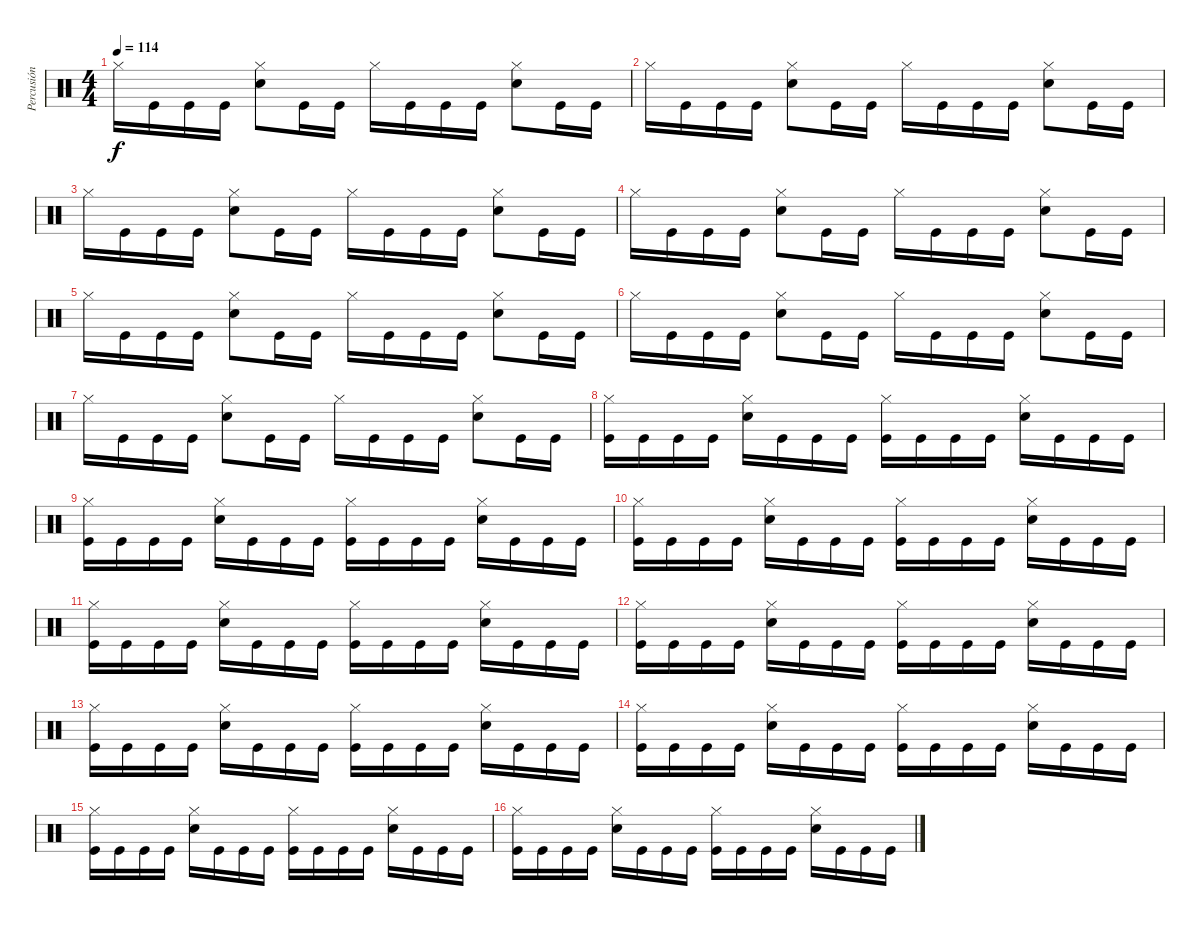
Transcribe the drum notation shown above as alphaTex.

\track ("Percusión" "Percusión") {instrument percussion}
\staff {score}
\articulation defaults
\ts (4 4)
\tempo 114
\clef neutral
\ks c "Hi-Hat (closed)".16{dy f} "Kick (hit)".16 "Kick (hit)".16 "Kick (hit)".16
("Hi-Hat (closed)" "Snare (hit) 2").8 "Kick (hit)".16 "Kick (hit)".16 "Hi-Hat (closed)".16 "Kick (hit)".16 "Kick (hit)".16 "Kick (hit)".16 ("Hi-Hat (closed)" "Snare (hit) 2").8 "Kick (hit)".16 "Kick (hit)".16 |
"Hi-Hat (closed)".16 "Kick (hit)".16 "Kick (hit)".16 "Kick (hit)".16 ("Hi-Hat (closed)" "Snare (hit) 2").8 "Kick (hit)".16 "Kick (hit)".16 "Hi-Hat (closed)".16 "Kick (hit)".16 "Kick (hit)".16 "Kick (hit)".16 ("Hi-Hat (closed)" "Snare (hit) 2").8 "Kick (hit)".16 "Kick (hit)".16 |
"Hi-Hat (closed)".16 "Kick (hit)".16 "Kick (hit)".16 "Kick (hit)".16 ("Hi-Hat (closed)" "Snare (hit) 2").8 "Kick (hit)".16 "Kick (hit)".16 "Hi-Hat (closed)".16 "Kick (hit)".16 "Kick (hit)".16 "Kick (hit)".16 ("Hi-Hat (closed)" "Snare (hit) 2").8 "Kick (hit)".16 "Kick (hit)".16 |
"Hi-Hat (closed)".16 "Kick (hit)".16 "Kick (hit)".16 "Kick (hit)".16 ("Hi-Hat (closed)" "Snare (hit) 2").8 "Kick (hit)".16 "Kick (hit)".16 "Hi-Hat (closed)".16 "Kick (hit)".16 "Kick (hit)".16 "Kick (hit)".16 ("Hi-Hat (closed)" "Snare (hit) 2").8 "Kick (hit)".16 "Kick (hit)".16 |
"Hi-Hat (closed)".16 "Kick (hit)".16 "Kick (hit)".16 "Kick (hit)".16 ("Hi-Hat (closed)" "Snare (hit) 2").8 "Kick (hit)".16 "Kick (hit)".16 "Hi-Hat (closed)".16 "Kick (hit)".16 "Kick (hit)".16 "Kick (hit)".16 ("Hi-Hat (closed)" "Snare (hit) 2").8 "Kick (hit)".16 "Kick (hit)".16 |
"Hi-Hat (closed)".16 "Kick (hit)".16 "Kick (hit)".16 "Kick (hit)".16 ("Hi-Hat (closed)" "Snare (hit) 2").8 "Kick (hit)".16 "Kick (hit)".16 "Hi-Hat (closed)".16 "Kick (hit)".16 "Kick (hit)".16 "Kick (hit)".16 ("Hi-Hat (closed)" "Snare (hit) 2").8 "Kick (hit)".16 "Kick (hit)".16 |
"Hi-Hat (closed)".16 "Kick (hit)".16 "Kick (hit)".16 "Kick (hit)".16 ("Hi-Hat (closed)" "Snare (hit) 2").8 "Kick (hit)".16 "Kick (hit)".16 "Hi-Hat (closed)".16 "Kick (hit)".16 "Kick (hit)".16 "Kick (hit)".16 ("Hi-Hat (closed)" "Snare (hit) 2").8 "Kick (hit)".16 "Kick (hit)".16 |
("Hi-Hat (closed)" "Kick (hit)").16 "Kick (hit)".16 "Kick (hit)".16 "Kick (hit)".16 ("Hi-Hat (closed)" "Snare (hit) 2").16 "Kick (hit)".16 "Kick (hit)".16 "Kick (hit)".16 ("Hi-Hat (closed)" "Kick (hit)").16 "Kick (hit)".16 "Kick (hit)".16 "Kick (hit)".16 ("Hi-Hat (closed)" "Snare (hit) 2").16 "Kick (hit)".16 "Kick (hit)".16 "Kick (hit)".16 |
("Hi-Hat (closed)" "Kick (hit)").16 "Kick (hit)".16 "Kick (hit)".16 "Kick (hit)".16 ("Hi-Hat (closed)" "Snare (hit) 2").16 "Kick (hit)".16 "Kick (hit)".16 "Kick (hit)".16 ("Hi-Hat (closed)" "Kick (hit)").16 "Kick (hit)".16 "Kick (hit)".16 "Kick (hit)".16 ("Hi-Hat (closed)" "Snare (hit) 2").16 "Kick (hit)".16 "Kick (hit)".16 "Kick (hit)".16 |
("Hi-Hat (closed)" "Kick (hit)").16 "Kick (hit)".16 "Kick (hit)".16 "Kick (hit)".16 ("Hi-Hat (closed)" "Snare (hit) 2").16 "Kick (hit)".16 "Kick (hit)".16 "Kick (hit)".16 ("Hi-Hat (closed)" "Kick (hit)").16 "Kick (hit)".16 "Kick (hit)".16 "Kick (hit)".16 ("Hi-Hat (closed)" "Snare (hit) 2").16 "Kick (hit)".16 "Kick (hit)".16 "Kick (hit)".16 |
("Hi-Hat (closed)" "Kick (hit)").16 "Kick (hit)".16 "Kick (hit)".16 "Kick (hit)".16 ("Hi-Hat (closed)" "Snare (hit) 2").16 "Kick (hit)".16 "Kick (hit)".16 "Kick (hit)".16 ("Hi-Hat (closed)" "Kick (hit)").16 "Kick (hit)".16 "Kick (hit)".16 "Kick (hit)".16 ("Hi-Hat (closed)" "Snare (hit) 2").16 "Kick (hit)".16 "Kick (hit)".16 "Kick (hit)".16 |
("Hi-Hat (closed)" "Kick (hit)").16 "Kick (hit)".16 "Kick (hit)".16 "Kick (hit)".16 ("Hi-Hat (closed)" "Snare (hit) 2").16 "Kick (hit)".16 "Kick (hit)".16 "Kick (hit)".16 ("Hi-Hat (closed)" "Kick (hit)").16 "Kick (hit)".16 "Kick (hit)".16 "Kick (hit)".16 ("Hi-Hat (closed)" "Snare (hit) 2").16 "Kick (hit)".16 "Kick (hit)".16 "Kick (hit)".16 |
("Hi-Hat (closed)" "Kick (hit)").16 "Kick (hit)".16 "Kick (hit)".16 "Kick (hit)".16 ("Hi-Hat (closed)" "Snare (hit) 2").16 "Kick (hit)".16 "Kick (hit)".16 "Kick (hit)".16 ("Hi-Hat (closed)" "Kick (hit)").16 "Kick (hit)".16 "Kick (hit)".16 "Kick (hit)".16 ("Hi-Hat (closed)" "Snare (hit) 2").16 "Kick (hit)".16 "Kick (hit)".16 "Kick (hit)".16 |
("Hi-Hat (closed)" "Kick (hit)").16 "Kick (hit)".16 "Kick (hit)".16 "Kick (hit)".16 ("Hi-Hat (closed)" "Snare (hit) 2").16 "Kick (hit)".16 "Kick (hit)".16 "Kick (hit)".16 ("Hi-Hat (closed)" "Kick (hit)").16 "Kick (hit)".16 "Kick (hit)".16 "Kick (hit)".16 ("Hi-Hat (closed)" "Snare (hit) 2").16 "Kick (hit)".16 "Kick (hit)".16 "Kick (hit)".16 |
("Hi-Hat (closed)" "Kick (hit)").16 "Kick (hit)".16 "Kick (hit)".16 "Kick (hit)".16 ("Hi-Hat (closed)" "Snare (hit) 2").16 "Kick (hit)".16 "Kick (hit)".16 "Kick (hit)".16 ("Hi-Hat (closed)" "Kick (hit)").16 "Kick (hit)".16 "Kick (hit)".16 "Kick (hit)".16 ("Hi-Hat (closed)" "Snare (hit) 2").16 "Kick (hit)".16 "Kick (hit)".16 "Kick (hit)".16 |
("Hi-Hat (closed)" "Kick (hit)").16 "Kick (hit)".16 "Kick (hit)".16 "Kick (hit)".16 ("Hi-Hat (closed)" "Snare (hit) 2").16 "Kick (hit)".16 "Kick (hit)".16 "Kick (hit)".16 ("Hi-Hat (closed)" "Kick (hit)").16 "Kick (hit)".16 "Kick (hit)".16 "Kick (hit)".16 ("Hi-Hat (closed)" "Snare (hit) 2").16 "Kick (hit)".16 "Kick (hit)".16 "Kick (hit)".16
